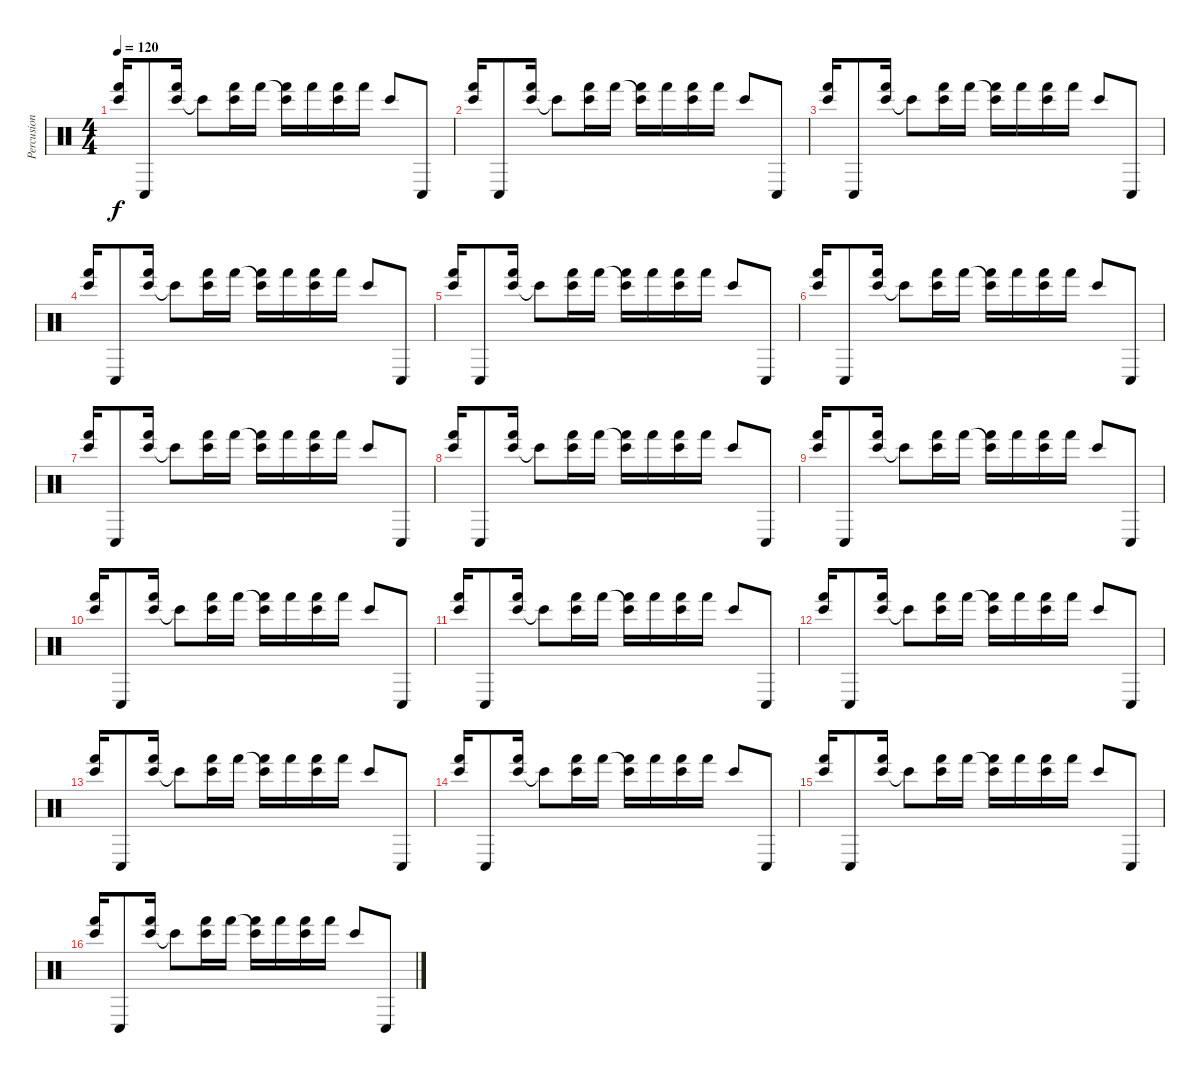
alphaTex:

\track ("Percusion" "Percusion") {instrument percussion}
\staff {score}
\articulation defaults
\ts (4 4)
\tempo 120
\clef neutral
\ks c
("Bongo High (hit)" "Hand (hit)").16{dy f} "Conga low (hit)".8 ("Bongo High (hit)" "Hand (hit)").16 "Bongo High (hit)"{t}.8 ("Bongo High (hit)" "Hand (hit)").16 "Hand (hit)".16 ("Bongo High (hit)"{t} "Hand (hit)").16 "Hand (hit)".16 ("Bongo High (hit)" "Hand (hit)").16 "Hand (hit)".16 "Bongo High (hit)".8 "Conga low (hit)".8 |
("Bongo High (hit)" "Hand (hit)").16 "Conga low (hit)".8 ("Bongo High (hit)" "Hand (hit)").16 "Bongo High (hit)"{t}.8 ("Bongo High (hit)" "Hand (hit)").16 "Hand (hit)".16 ("Bongo High (hit)"{t} "Hand (hit)").16 "Hand (hit)".16 ("Bongo High (hit)" "Hand (hit)").16 "Hand (hit)".16 "Bongo High (hit)".8 "Conga low (hit)".8 |
("Bongo High (hit)" "Hand (hit)").16 "Conga low (hit)".8 ("Bongo High (hit)" "Hand (hit)").16 "Bongo High (hit)"{t}.8 ("Bongo High (hit)" "Hand (hit)").16 "Hand (hit)".16 ("Bongo High (hit)"{t} "Hand (hit)").16 "Hand (hit)".16 ("Bongo High (hit)" "Hand (hit)").16 "Hand (hit)".16 "Bongo High (hit)".8 "Conga low (hit)".8 |
("Bongo High (hit)" "Hand (hit)").16 "Conga low (hit)".8 ("Bongo High (hit)" "Hand (hit)").16 "Bongo High (hit)"{t}.8 ("Bongo High (hit)" "Hand (hit)").16 "Hand (hit)".16 ("Bongo High (hit)"{t} "Hand (hit)").16 "Hand (hit)".16 ("Bongo High (hit)" "Hand (hit)").16 "Hand (hit)".16 "Bongo High (hit)".8 "Conga low (hit)".8 |
("Bongo High (hit)" "Hand (hit)").16 "Conga low (hit)".8 ("Bongo High (hit)" "Hand (hit)").16 "Bongo High (hit)"{t}.8 ("Bongo High (hit)" "Hand (hit)").16 "Hand (hit)".16 ("Bongo High (hit)"{t} "Hand (hit)").16 "Hand (hit)".16 ("Bongo High (hit)" "Hand (hit)").16 "Hand (hit)".16 "Bongo High (hit)".8 "Conga low (hit)".8 |
("Bongo High (hit)" "Hand (hit)").16 "Conga low (hit)".8 ("Bongo High (hit)" "Hand (hit)").16 "Bongo High (hit)"{t}.8 ("Bongo High (hit)" "Hand (hit)").16 "Hand (hit)".16 ("Bongo High (hit)"{t} "Hand (hit)").16 "Hand (hit)".16 ("Bongo High (hit)" "Hand (hit)").16 "Hand (hit)".16 "Bongo High (hit)".8 "Conga low (hit)".8 |
("Bongo High (hit)" "Hand (hit)").16 "Conga low (hit)".8 ("Bongo High (hit)" "Hand (hit)").16 "Bongo High (hit)"{t}.8 ("Bongo High (hit)" "Hand (hit)").16 "Hand (hit)".16 ("Bongo High (hit)"{t} "Hand (hit)").16 "Hand (hit)".16 ("Bongo High (hit)" "Hand (hit)").16 "Hand (hit)".16 "Bongo High (hit)".8 "Conga low (hit)".8 |
("Bongo High (hit)" "Hand (hit)").16 "Conga low (hit)".8 ("Bongo High (hit)" "Hand (hit)").16 "Bongo High (hit)"{t}.8 ("Bongo High (hit)" "Hand (hit)").16 "Hand (hit)".16 ("Bongo High (hit)"{t} "Hand (hit)").16 "Hand (hit)".16 ("Bongo High (hit)" "Hand (hit)").16 "Hand (hit)".16 "Bongo High (hit)".8 "Conga low (hit)".8 |
("Bongo High (hit)" "Hand (hit)").16 "Conga low (hit)".8 ("Bongo High (hit)" "Hand (hit)").16 "Bongo High (hit)"{t}.8 ("Bongo High (hit)" "Hand (hit)").16 "Hand (hit)".16 ("Bongo High (hit)"{t} "Hand (hit)").16 "Hand (hit)".16 ("Bongo High (hit)" "Hand (hit)").16 "Hand (hit)".16 "Bongo High (hit)".8 "Conga low (hit)".8 |
("Bongo High (hit)" "Hand (hit)").16 "Conga low (hit)".8 ("Bongo High (hit)" "Hand (hit)").16 "Bongo High (hit)"{t}.8 ("Bongo High (hit)" "Hand (hit)").16 "Hand (hit)".16 ("Bongo High (hit)"{t} "Hand (hit)").16 "Hand (hit)".16 ("Bongo High (hit)" "Hand (hit)").16 "Hand (hit)".16 "Bongo High (hit)".8 "Conga low (hit)".8 |
("Bongo High (hit)" "Hand (hit)").16 "Conga low (hit)".8 ("Bongo High (hit)" "Hand (hit)").16 "Bongo High (hit)"{t}.8 ("Bongo High (hit)" "Hand (hit)").16 "Hand (hit)".16 ("Bongo High (hit)"{t} "Hand (hit)").16 "Hand (hit)".16 ("Bongo High (hit)" "Hand (hit)").16 "Hand (hit)".16 "Bongo High (hit)".8 "Conga low (hit)".8 |
("Bongo High (hit)" "Hand (hit)").16 "Conga low (hit)".8 ("Bongo High (hit)" "Hand (hit)").16 "Bongo High (hit)"{t}.8 ("Bongo High (hit)" "Hand (hit)").16 "Hand (hit)".16 ("Bongo High (hit)"{t} "Hand (hit)").16 "Hand (hit)".16 ("Bongo High (hit)" "Hand (hit)").16 "Hand (hit)".16 "Bongo High (hit)".8 "Conga low (hit)".8 |
("Bongo High (hit)" "Hand (hit)").16 "Conga low (hit)".8 ("Bongo High (hit)" "Hand (hit)").16 "Bongo High (hit)"{t}.8 ("Bongo High (hit)" "Hand (hit)").16 "Hand (hit)".16 ("Bongo High (hit)"{t} "Hand (hit)").16 "Hand (hit)".16 ("Bongo High (hit)" "Hand (hit)").16 "Hand (hit)".16 "Bongo High (hit)".8 "Conga low (hit)".8 |
("Bongo High (hit)" "Hand (hit)").16 "Conga low (hit)".8 ("Bongo High (hit)" "Hand (hit)").16 "Bongo High (hit)"{t}.8 ("Bongo High (hit)" "Hand (hit)").16 "Hand (hit)".16 ("Bongo High (hit)"{t} "Hand (hit)").16 "Hand (hit)".16 ("Bongo High (hit)" "Hand (hit)").16 "Hand (hit)".16 "Bongo High (hit)".8 "Conga low (hit)".8 |
("Bongo High (hit)" "Hand (hit)").16 "Conga low (hit)".8 ("Bongo High (hit)" "Hand (hit)").16 "Bongo High (hit)"{t}.8 ("Bongo High (hit)" "Hand (hit)").16 "Hand (hit)".16 ("Bongo High (hit)"{t} "Hand (hit)").16 "Hand (hit)".16 ("Bongo High (hit)" "Hand (hit)").16 "Hand (hit)".16 "Bongo High (hit)".8 "Conga low (hit)".8 |
("Bongo High (hit)" "Hand (hit)").16 "Conga low (hit)".8 ("Bongo High (hit)" "Hand (hit)").16 "Bongo High (hit)"{t}.8 ("Bongo High (hit)" "Hand (hit)").16 "Hand (hit)".16 ("Bongo High (hit)"{t} "Hand (hit)").16 "Hand (hit)".16 ("Bongo High (hit)" "Hand (hit)").16 "Hand (hit)".16 "Bongo High (hit)".8 "Conga low (hit)".8
